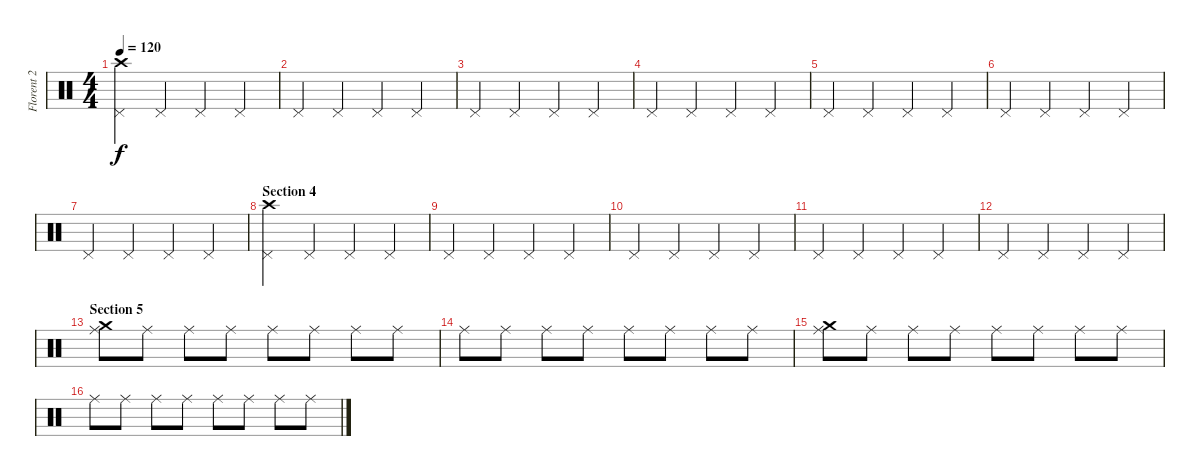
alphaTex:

\track ("Florent 2" "Florent 2") {instrument percussion}
\staff {score}
\articulation defaults
\ts (4 4)
\tempo 120
\clef neutral
\ks c
("Pedal Hi-Hat (hit)" "Crash high (hit)").4{dy f} "Pedal Hi-Hat (hit)".4 "Pedal Hi-Hat (hit)".4 "Pedal Hi-Hat (hit)".4 |
"Pedal Hi-Hat (hit)".4 "Pedal Hi-Hat (hit)".4 "Pedal Hi-Hat (hit)".4 "Pedal Hi-Hat (hit)".4 |
"Pedal Hi-Hat (hit)".4 "Pedal Hi-Hat (hit)".4 "Pedal Hi-Hat (hit)".4 "Pedal Hi-Hat (hit)".4 |
"Pedal Hi-Hat (hit)".4 "Pedal Hi-Hat (hit)".4 "Pedal Hi-Hat (hit)".4 "Pedal Hi-Hat (hit)".4 |
"Pedal Hi-Hat (hit)".4 "Pedal Hi-Hat (hit)".4 "Pedal Hi-Hat (hit)".4 "Pedal Hi-Hat (hit)".4 |
"Pedal Hi-Hat (hit)".4 "Pedal Hi-Hat (hit)".4 "Pedal Hi-Hat (hit)".4 "Pedal Hi-Hat (hit)".4 |
"Pedal Hi-Hat (hit)".4 "Pedal Hi-Hat (hit)".4 "Pedal Hi-Hat (hit)".4 "Pedal Hi-Hat (hit)".4 |
\section ("" "Section 4")
("Pedal Hi-Hat (hit)" "Crash high (hit)").4 "Pedal Hi-Hat (hit)".4 "Pedal Hi-Hat (hit)".4 "Pedal Hi-Hat (hit)".4 |
"Pedal Hi-Hat (hit)".4 "Pedal Hi-Hat (hit)".4 "Pedal Hi-Hat (hit)".4 "Pedal Hi-Hat (hit)".4 |
"Pedal Hi-Hat (hit)".4 "Pedal Hi-Hat (hit)".4 "Pedal Hi-Hat (hit)".4 "Pedal Hi-Hat (hit)".4 |
"Pedal Hi-Hat (hit)".4 "Pedal Hi-Hat (hit)".4 "Pedal Hi-Hat (hit)".4 "Pedal Hi-Hat (hit)".4 |
"Pedal Hi-Hat (hit)".4 "Pedal Hi-Hat (hit)".4 "Pedal Hi-Hat (hit)".4 "Pedal Hi-Hat (hit)".4 |
\section ("" "Section 5")
("Ride (middle)" "Crash medium (hit)").8 "Ride (middle)".8 "Ride (middle)".8 "Ride (middle)".8 "Ride (middle)".8 "Ride (middle)".8 "Ride (middle)".8 "Ride (middle)".8 |
"Ride (middle)".8 "Ride (middle)".8 "Ride (middle)".8 "Ride (middle)".8 "Ride (middle)".8 "Ride (middle)".8 "Ride (middle)".8 "Ride (middle)".8 |
("Ride (middle)" "Crash medium (hit)").8 "Ride (middle)".8 "Ride (middle)".8 "Ride (middle)".8 "Ride (middle)".8 "Ride (middle)".8 "Ride (middle)".8 "Ride (middle)".8 |
"Ride (middle)".8 "Ride (middle)".8 "Ride (middle)".8 "Ride (middle)".8 "Ride (middle)".8 "Ride (middle)".8 "Ride (middle)".8 "Ride (middle)".8
